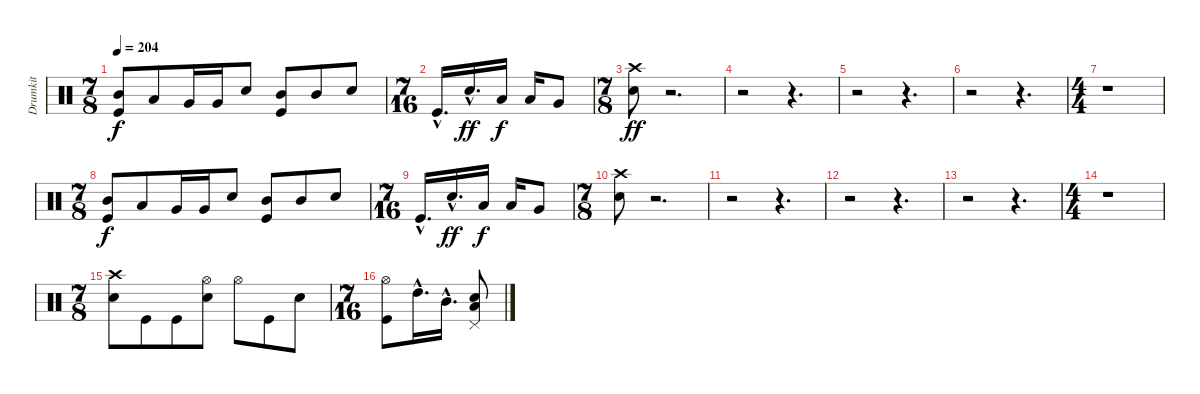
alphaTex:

\track ("Drumkit" "Drumkit") {instrument percussion}
\staff {score}
\articulation defaults
\ts (7 8)
\tempo 204
\clef neutral
\ks c
("Mid Tom (hit)" "Kick (hit)").8{dy f} "Low Tom (hit)".8 "Very Low Tom (hit)".16 "Very Low Tom (hit)".16 "Snare (hit) 2".8 ("Kick (hit)" "Mid Tom (hit)").8 "Mid Tom (hit)".8 "Snare (hit) 2".8 |
\ts (7 16)
"Kick (hit)"{hac}.16{d} "Snare (hit) 2"{hac}.16{d dy ff} "Low Tom (hit)".16{dy f} "Low Tom (hit)".16 "Very Low Tom (hit)".8 |
\ts (7 8)
("Snare (hit) 2" "Crash high (hit)").8{dy ff} r.2{d} |
r.2 r.4{d} |
r.2 r.4{d} |
r.2 r.4{d} |
\ts (4 4)
r.1 |
\ts (7 8)
("Mid Tom (hit)" "Kick (hit)").8{dy f} "Low Tom (hit)".8 "Very Low Tom (hit)".16 "Very Low Tom (hit)".16 "Snare (hit) 2".8 ("Kick (hit)" "Mid Tom (hit)").8 "Mid Tom (hit)".8 "Snare (hit) 2".8 |
\ts (7 16)
"Kick (hit)"{hac}.16{d} "Snare (hit) 2"{hac}.16{d dy ff} "Low Tom (hit)".16{dy f} "Low Tom (hit)".16 "Very Low Tom (hit)".8 |
\ts (7 8)
("Snare (hit) 2" "Crash high (hit)").8 r.2{d} |
r.2 r.4{d} |
r.2 r.4{d} |
r.2 r.4{d} |
\ts (4 4)
r.1 |
\ts (7 8)
("Snare (hit) 2" "Crash high (hit)").8 "Kick (hit)".8 "Kick (hit)".8 ("Snare (hit) 2" "Hi-Hat (open)").8 "Hi-Hat (open)".8 "Kick (hit)".8 "Snare (hit) 2".8 |
\ts (7 16)
("Kick (hit)" "Hi-Hat (open)").8 "High Tom (hit)"{hac}.16{d} "Mid Tom (hit)"{hac}.16{d} ("Snare (hit) 2" "Low Tom (hit)" "Pedal Hi-Hat (hit)").8
